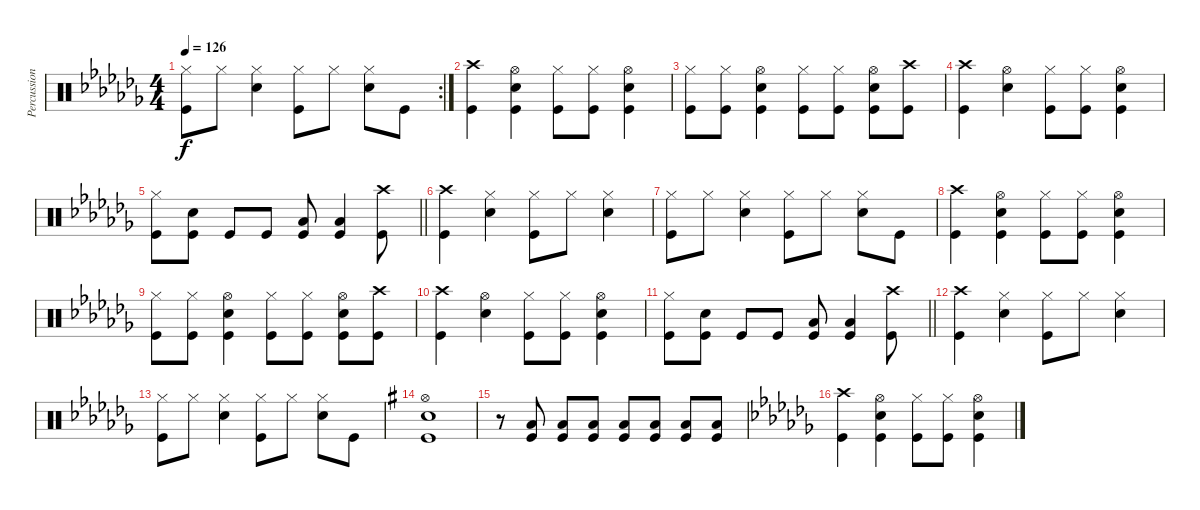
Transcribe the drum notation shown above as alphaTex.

\track ("Percussion" "Percussion") {instrument percussion}
\staff {score}
\articulation defaults
\rc 2
\ts (4 4)
\tempo 126
\clef neutral
\ks cb
("Kick (hit)" "Hi-Hat (closed)").8{dy f} "Hi-Hat (closed)".8 ("Hi-Hat (closed)" "Snare (hit) 2").4 ("Kick (hit)" "Hi-Hat (closed)").8 "Hi-Hat (closed)".8 ("Hi-Hat (closed)" "Snare (hit) 2").8 "Kick (hit)".8 |
("Crash high (hit)" "Kick (hit)").4 ("Kick (hit)" "Snare (hit) 2" "Hi-Hat (open)").4 ("Hi-Hat (closed)" "Kick (hit)").8 ("Hi-Hat (closed)" "Kick (hit)").8 ("Hi-Hat (open)" "Kick (hit)" "Snare (hit) 2").4 |
("Hi-Hat (closed)" "Kick (hit)").8 ("Hi-Hat (closed)" "Kick (hit)").8 ("Hi-Hat (open)" "Kick (hit)" "Snare (hit) 2").4 ("Hi-Hat (closed)" "Kick (hit)").8 ("Hi-Hat (closed)" "Kick (hit)").8 ("Kick (hit)" "Hi-Hat (open)" "Snare (hit) 2").8 ("Crash high (hit)" "Kick (hit)").8 |
("Crash high (hit)" "Kick (hit)").4 ("Hi-Hat (open)" "Snare (hit) 2").4 ("Hi-Hat (closed)" "Kick (hit)").8 ("Hi-Hat (closed)" "Kick (hit)").8 ("Hi-Hat (open)" "Kick (hit)" "Snare (hit) 2").4 |
\barLineRight lightlight
("Hi-Hat (closed)" "Kick (hit)").8 ("Snare (hit) 2" "Kick (hit)").8 "Kick (hit)".8 "Kick (hit)".8 ("Kick (hit)" "Low Tom (hit)").8 ("Kick (hit)" "Low Tom (hit)").4 ("Kick (hit)" "Crash high (hit)").8 |
("Crash high (hit)" "Kick (hit)").4 ("Snare (hit) 2" "Hi-Hat (closed)").4 ("Hi-Hat (closed)" "Kick (hit)").8 "Hi-Hat (closed)".8 ("Hi-Hat (closed)" "Snare (hit) 2").4 |
("Kick (hit)" "Hi-Hat (closed)").8 "Hi-Hat (closed)".8 ("Hi-Hat (closed)" "Snare (hit) 2").4 ("Kick (hit)" "Hi-Hat (closed)").8 "Hi-Hat (closed)".8 ("Hi-Hat (closed)" "Snare (hit) 2").8 "Kick (hit)".8 |
("Crash high (hit)" "Kick (hit)").4 ("Kick (hit)" "Snare (hit) 2" "Hi-Hat (open)").4 ("Hi-Hat (closed)" "Kick (hit)").8 ("Hi-Hat (closed)" "Kick (hit)").8 ("Hi-Hat (open)" "Kick (hit)" "Snare (hit) 2").4 |
("Hi-Hat (closed)" "Kick (hit)").8 ("Hi-Hat (closed)" "Kick (hit)").8 ("Hi-Hat (open)" "Kick (hit)" "Snare (hit) 2").4 ("Hi-Hat (closed)" "Kick (hit)").8 ("Hi-Hat (closed)" "Kick (hit)").8 ("Kick (hit)" "Hi-Hat (open)" "Snare (hit) 2").8 ("Crash high (hit)" "Kick (hit)").8 |
("Crash high (hit)" "Kick (hit)").4 ("Hi-Hat (open)" "Snare (hit) 2").4 ("Hi-Hat (closed)" "Kick (hit)").8 ("Hi-Hat (closed)" "Kick (hit)").8 ("Hi-Hat (open)" "Kick (hit)" "Snare (hit) 2").4 |
\barLineRight lightlight
("Hi-Hat (closed)" "Kick (hit)").8 ("Snare (hit) 2" "Kick (hit)").8 "Kick (hit)".8 "Kick (hit)".8 ("Kick (hit)" "Low Tom (hit)").8 ("Kick (hit)" "Low Tom (hit)").4 ("Kick (hit)" "Crash high (hit)").8 |
("Crash high (hit)" "Kick (hit)").4 ("Snare (hit) 2" "Hi-Hat (closed)").4 ("Hi-Hat (closed)" "Kick (hit)").8 "Hi-Hat (closed)".8 ("Hi-Hat (closed)" "Snare (hit) 2").4 |
("Kick (hit)" "Hi-Hat (closed)").8 "Hi-Hat (closed)".8 ("Hi-Hat (closed)" "Snare (hit) 2").4 ("Kick (hit)" "Hi-Hat (closed)").8 "Hi-Hat (closed)".8 ("Hi-Hat (closed)" "Snare (hit) 2").8 "Kick (hit)".8 |
\ks g
("Hi-Hat (open)" "Kick (hit)" "Snare (hit) 2").1 |
r.8 ("Kick (hit)" "Low Tom (hit)").8 ("Kick (hit)" "Low Tom (hit)").8 ("Kick (hit)" "Low Tom (hit)").8 ("Kick (hit)" "Low Tom (hit)").8 ("Kick (hit)" "Low Tom (hit)").8 ("Kick (hit)" "Low Tom (hit)").8 ("Kick (hit)" "Low Tom (hit)").8 |
\ks cb
("Kick (hit)" "Crash high (hit)").4 ("Hi-Hat (open)" "Snare (hit) 2" "Kick (hit)").4 ("Hi-Hat (closed)" "Kick (hit)").8 ("Kick (hit)" "Hi-Hat (closed)").8 ("Hi-Hat (open)" "Snare (hit) 2" "Kick (hit)").4
